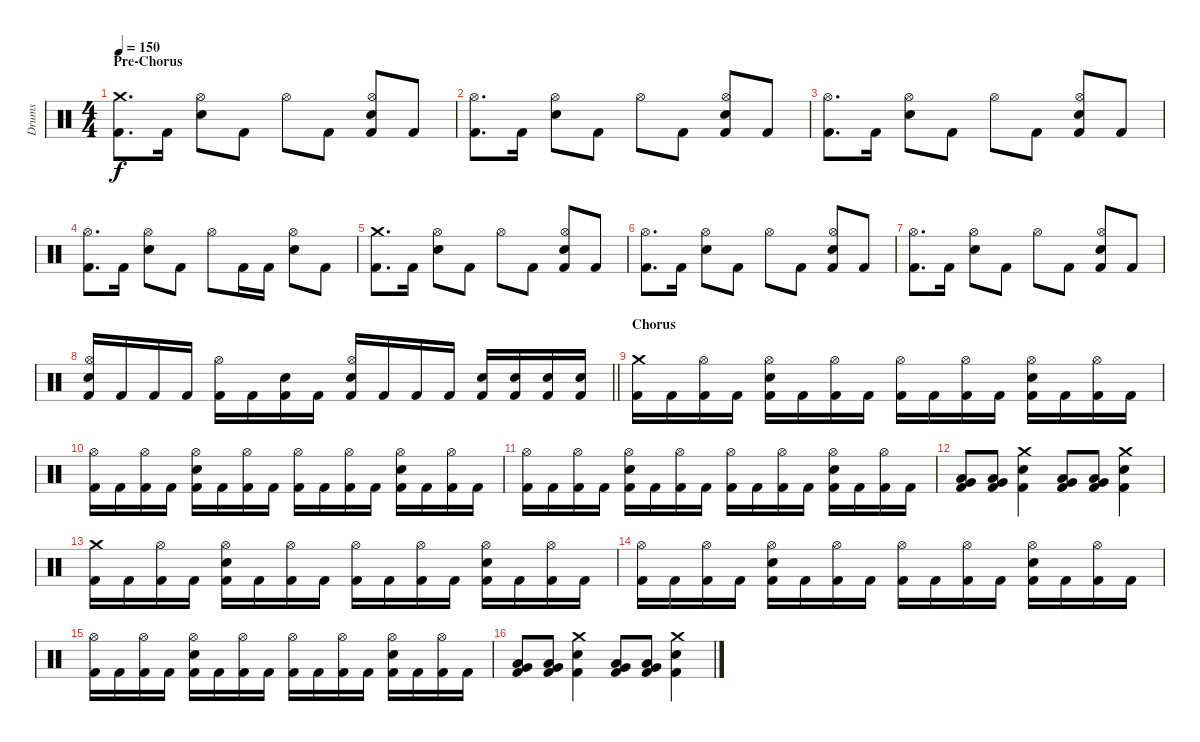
\track ("Drums" "Drums") {instrument percussion}
\staff {score}
\articulation defaults
\ts (4 4)
\section ("" "Pre-Chorus")
\tempo 150
\clef neutral
\ks c
("Crash medium (hit)" "Kick (hit) 2").8{d dy f} "Kick (hit) 2".16 ("Hi-Hat (open)" "Snare (hit) 2").8 "Kick (hit) 2".8 "Hi-Hat (open)".8 "Kick (hit) 2".8 ("Hi-Hat (open)" "Snare (hit) 2" "Kick (hit) 2").8 "Kick (hit) 2".8 |
("Hi-Hat (open)" "Kick (hit) 2").8{d} "Kick (hit) 2".16 ("Hi-Hat (open)" "Snare (hit) 2").8 "Kick (hit) 2".8 "Hi-Hat (open)".8 "Kick (hit) 2".8 ("Hi-Hat (open)" "Snare (hit) 2" "Kick (hit) 2").8 "Kick (hit) 2".8 |
("Hi-Hat (open)" "Kick (hit) 2").8{d} "Kick (hit) 2".16 ("Hi-Hat (open)" "Snare (hit) 2").8 "Kick (hit) 2".8 "Hi-Hat (open)".8 "Kick (hit) 2".8 ("Hi-Hat (open)" "Snare (hit) 2" "Kick (hit) 2").8 "Kick (hit) 2".8 |
("Hi-Hat (open)" "Kick (hit) 2").8{d} "Kick (hit) 2".16 ("Hi-Hat (open)" "Snare (hit) 2").8 "Kick (hit) 2".8 "Hi-Hat (open)".8 "Kick (hit) 2".16 "Kick (hit) 2".16 ("Hi-Hat (open)" "Snare (hit) 2").8 "Kick (hit) 2".8 |
("Crash medium (hit)" "Kick (hit) 2").8{d} "Kick (hit) 2".16 ("Hi-Hat (open)" "Snare (hit) 2").8 "Kick (hit) 2".8 "Hi-Hat (open)".8 "Kick (hit) 2".8 ("Hi-Hat (open)" "Snare (hit) 2" "Kick (hit) 2").8 "Kick (hit) 2".8 |
("Hi-Hat (open)" "Kick (hit) 2").8{d} "Kick (hit) 2".16 ("Hi-Hat (open)" "Snare (hit) 2").8 "Kick (hit) 2".8 "Hi-Hat (open)".8 "Kick (hit) 2".8 ("Hi-Hat (open)" "Snare (hit) 2" "Kick (hit) 2").8 "Kick (hit) 2".8 |
("Hi-Hat (open)" "Kick (hit) 2").8{d} "Kick (hit) 2".16 ("Hi-Hat (open)" "Snare (hit) 2").8 "Kick (hit) 2".8 "Hi-Hat (open)".8 "Kick (hit) 2".8 ("Hi-Hat (open)" "Snare (hit) 2" "Kick (hit) 2").8 "Kick (hit) 2".8 |
\barLineRight lightlight
("Hi-Hat (open)" "Snare (hit) 2" "Kick (hit) 2").16 "Kick (hit) 2".16 "Kick (hit) 2".16 "Kick (hit) 2".16 ("Hi-Hat (open)" "Kick (hit) 2").16 "Kick (hit) 2".16 ("Snare (hit) 2" "Kick (hit) 2").16 "Kick (hit) 2".16 ("Hi-Hat (open)" "Snare (hit) 2" "Kick (hit) 2").16 "Kick (hit) 2".16 "Kick (hit) 2".16 "Kick (hit) 2".16 ("Snare (hit) 2" "Kick (hit) 2").16 ("Snare (hit) 2" "Kick (hit) 2").16 ("Snare (hit) 2" "Kick (hit) 2").16 ("Snare (hit) 2" "Kick (hit) 2").16 |
\section ("" "Chorus")
("Crash medium (hit)" "Kick (hit) 2").16 "Kick (hit) 2".16 ("Hi-Hat (open)" "Kick (hit) 2").16 "Kick (hit) 2".16 ("Hi-Hat (open)" "Snare (hit) 2" "Kick (hit) 2").16 "Kick (hit) 2".16 ("Hi-Hat (open)" "Kick (hit) 2").16 "Kick (hit) 2".16 ("Hi-Hat (open)" "Kick (hit) 2").16 "Kick (hit) 2".16 ("Hi-Hat (open)" "Kick (hit) 2").16 "Kick (hit) 2".16 ("Hi-Hat (open)" "Snare (hit) 2" "Kick (hit) 2").16 "Kick (hit) 2".16 ("Hi-Hat (open)" "Kick (hit) 2").16 "Kick (hit) 2".16 |
("Hi-Hat (open)" "Kick (hit) 2").16 "Kick (hit) 2".16 ("Hi-Hat (open)" "Kick (hit) 2").16 "Kick (hit) 2".16 ("Hi-Hat (open)" "Snare (hit) 2" "Kick (hit) 2").16 "Kick (hit) 2".16 ("Hi-Hat (open)" "Kick (hit) 2").16 "Kick (hit) 2".16 ("Hi-Hat (open)" "Kick (hit) 2").16 "Kick (hit) 2".16 ("Hi-Hat (open)" "Kick (hit) 2").16 "Kick (hit) 2".16 ("Hi-Hat (open)" "Snare (hit) 2" "Kick (hit) 2").16 "Kick (hit) 2".16 ("Hi-Hat (open)" "Kick (hit) 2").16 "Kick (hit) 2".16 |
("Hi-Hat (open)" "Kick (hit) 2").16 "Kick (hit) 2".16 ("Hi-Hat (open)" "Kick (hit) 2").16 "Kick (hit) 2".16 ("Hi-Hat (open)" "Snare (hit) 2" "Kick (hit) 2").16 "Kick (hit) 2".16 ("Hi-Hat (open)" "Kick (hit) 2").16 "Kick (hit) 2".16 ("Hi-Hat (open)" "Kick (hit) 2").16 "Kick (hit) 2".16 ("Hi-Hat (open)" "Kick (hit) 2").16 "Kick (hit) 2".16 ("Hi-Hat (open)" "Snare (hit) 2" "Kick (hit) 2").16 "Kick (hit) 2".16 ("Hi-Hat (open)" "Kick (hit) 2").16 "Kick (hit) 2".16 |
("Low Tom (hit)" "Very Low Tom (hit)" "Kick (hit) 2").8 ("Low Tom (hit)" "Very Low Tom (hit)" "Kick (hit) 2").8 ("Crash medium (hit)" "Snare (hit) 2" "Kick (hit) 2").4 ("Very Low Tom (hit)" "Low Floor Tom (hit)" "Kick (hit) 2").8 ("Very Low Tom (hit)" "Low Floor Tom (hit)" "Kick (hit) 2").8 ("Crash medium (hit)" "Snare (hit) 2" "Kick (hit) 2").4 |
("Crash medium (hit)" "Kick (hit) 2").16 "Kick (hit) 2".16 ("Hi-Hat (open)" "Kick (hit) 2").16 "Kick (hit) 2".16 ("Hi-Hat (open)" "Snare (hit) 2" "Kick (hit) 2").16 "Kick (hit) 2".16 ("Hi-Hat (open)" "Kick (hit) 2").16 "Kick (hit) 2".16 ("Hi-Hat (open)" "Kick (hit) 2").16 "Kick (hit) 2".16 ("Hi-Hat (open)" "Kick (hit) 2").16 "Kick (hit) 2".16 ("Hi-Hat (open)" "Snare (hit) 2" "Kick (hit) 2").16 "Kick (hit) 2".16 ("Hi-Hat (open)" "Kick (hit) 2").16 "Kick (hit) 2".16 |
("Hi-Hat (open)" "Kick (hit) 2").16 "Kick (hit) 2".16 ("Hi-Hat (open)" "Kick (hit) 2").16 "Kick (hit) 2".16 ("Hi-Hat (open)" "Snare (hit) 2" "Kick (hit) 2").16 "Kick (hit) 2".16 ("Hi-Hat (open)" "Kick (hit) 2").16 "Kick (hit) 2".16 ("Hi-Hat (open)" "Kick (hit) 2").16 "Kick (hit) 2".16 ("Hi-Hat (open)" "Kick (hit) 2").16 "Kick (hit) 2".16 ("Hi-Hat (open)" "Snare (hit) 2" "Kick (hit) 2").16 "Kick (hit) 2".16 ("Hi-Hat (open)" "Kick (hit) 2").16 "Kick (hit) 2".16 |
("Hi-Hat (open)" "Kick (hit) 2").16 "Kick (hit) 2".16 ("Hi-Hat (open)" "Kick (hit) 2").16 "Kick (hit) 2".16 ("Hi-Hat (open)" "Snare (hit) 2" "Kick (hit) 2").16 "Kick (hit) 2".16 ("Hi-Hat (open)" "Kick (hit) 2").16 "Kick (hit) 2".16 ("Hi-Hat (open)" "Kick (hit) 2").16 "Kick (hit) 2".16 ("Hi-Hat (open)" "Kick (hit) 2").16 "Kick (hit) 2".16 ("Hi-Hat (open)" "Snare (hit) 2" "Kick (hit) 2").16 "Kick (hit) 2".16 ("Hi-Hat (open)" "Kick (hit) 2").16 "Kick (hit) 2".16 |
("Low Tom (hit)" "Very Low Tom (hit)" "Kick (hit) 2").8 ("Low Tom (hit)" "Very Low Tom (hit)" "Kick (hit) 2").8 ("Crash medium (hit)" "Snare (hit) 2" "Kick (hit) 2").4 ("Very Low Tom (hit)" "Low Floor Tom (hit)" "Kick (hit) 2").8 ("Very Low Tom (hit)" "Low Floor Tom (hit)" "Kick (hit) 2").8 ("Crash medium (hit)" "Snare (hit) 2" "Kick (hit) 2").4
